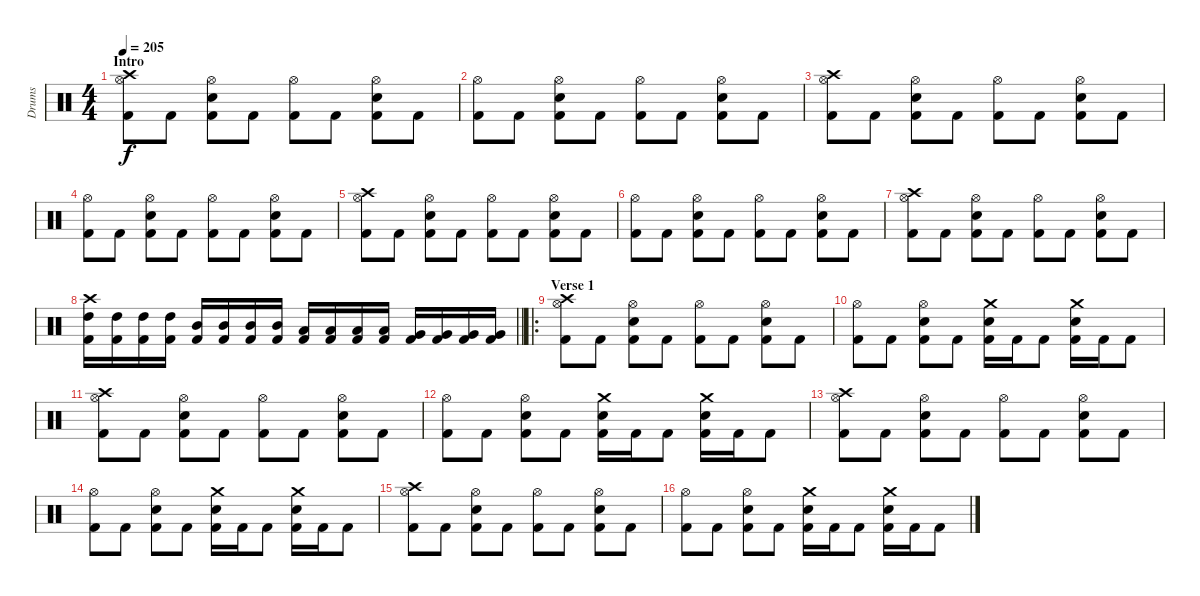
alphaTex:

\track ("Drums" "Drums") {instrument percussion}
\staff {score}
\articulation defaults
\ts (4 4)
\section ("" "Intro")
\tempo 205
\clef neutral
\ks c
("Crash high (hit)" "Hi-Hat (open)" "Kick (hit) 2").8{dy f} "Kick (hit) 2".8 ("Hi-Hat (open)" "Snare (hit) 2" "Kick (hit) 2").8 "Kick (hit) 2".8 ("Hi-Hat (open)" "Kick (hit) 2").8 "Kick (hit) 2".8 ("Hi-Hat (open)" "Snare (hit) 2" "Kick (hit) 2").8 "Kick (hit) 2".8 |
("Hi-Hat (open)" "Kick (hit) 2").8 "Kick (hit) 2".8 ("Hi-Hat (open)" "Snare (hit) 2" "Kick (hit) 2").8 "Kick (hit) 2".8 ("Hi-Hat (open)" "Kick (hit) 2").8 "Kick (hit) 2".8 ("Hi-Hat (open)" "Snare (hit) 2" "Kick (hit) 2").8 "Kick (hit) 2".8 |
("Crash high (hit)" "Hi-Hat (open)" "Kick (hit) 2").8 "Kick (hit) 2".8 ("Hi-Hat (open)" "Snare (hit) 2" "Kick (hit) 2").8 "Kick (hit) 2".8 ("Hi-Hat (open)" "Kick (hit) 2").8 "Kick (hit) 2".8 ("Hi-Hat (open)" "Snare (hit) 2" "Kick (hit) 2").8 "Kick (hit) 2".8 |
("Hi-Hat (open)" "Kick (hit) 2").8 "Kick (hit) 2".8 ("Hi-Hat (open)" "Snare (hit) 2" "Kick (hit) 2").8 "Kick (hit) 2".8 ("Hi-Hat (open)" "Kick (hit) 2").8 "Kick (hit) 2".8 ("Hi-Hat (open)" "Snare (hit) 2" "Kick (hit) 2").8 "Kick (hit) 2".8 |
("Crash high (hit)" "Hi-Hat (open)" "Kick (hit) 2").8 "Kick (hit) 2".8 ("Hi-Hat (open)" "Snare (hit) 2" "Kick (hit) 2").8 "Kick (hit) 2".8 ("Hi-Hat (open)" "Kick (hit) 2").8 "Kick (hit) 2".8 ("Hi-Hat (open)" "Snare (hit) 2" "Kick (hit) 2").8 "Kick (hit) 2".8 |
("Hi-Hat (open)" "Kick (hit) 2").8 "Kick (hit) 2".8 ("Hi-Hat (open)" "Snare (hit) 2" "Kick (hit) 2").8 "Kick (hit) 2".8 ("Hi-Hat (open)" "Kick (hit) 2").8 "Kick (hit) 2".8 ("Hi-Hat (open)" "Snare (hit) 2" "Kick (hit) 2").8 "Kick (hit) 2".8 |
("Crash high (hit)" "Hi-Hat (open)" "Kick (hit) 2").8 "Kick (hit) 2".8 ("Hi-Hat (open)" "Snare (hit) 2" "Kick (hit) 2").8 "Kick (hit) 2".8 ("Hi-Hat (open)" "Kick (hit) 2").8 "Kick (hit) 2".8 ("Hi-Hat (open)" "Snare (hit) 2" "Kick (hit) 2").8 "Kick (hit) 2".8 |
\barLineRight lightlight
("Crash high (hit)" "High Tom (hit)" "Kick (hit) 2").16 ("High Tom (hit)" "Kick (hit) 2").16 ("High Tom (hit)" "Kick (hit) 2").16 ("High Tom (hit)" "Kick (hit) 2").16 ("Mid Tom (hit)" "Kick (hit) 2").16 ("Mid Tom (hit)" "Kick (hit) 2").16 ("Mid Tom (hit)" "Kick (hit) 2").16 ("Mid Tom (hit)" "Kick (hit) 2").16 ("Low Tom (hit)" "Kick (hit) 2").16 ("Low Tom (hit)" "Kick (hit) 2").16 ("Low Tom (hit)" "Kick (hit) 2").16 ("Low Tom (hit)" "Kick (hit) 2").16 ("Very Low Tom (hit)" "Kick (hit) 2").16 ("Very Low Tom (hit)" "Kick (hit) 2").16 ("Very Low Tom (hit)" "Kick (hit) 2").16 ("Very Low Tom (hit)" "Kick (hit) 2").16 |
\ro
\section ("" "Verse 1")
("Crash high (hit)" "Hi-Hat (open)" "Kick (hit) 2").8 "Kick (hit) 2".8 ("Hi-Hat (open)" "Snare (hit) 2" "Kick (hit) 2").8 "Kick (hit) 2".8 ("Hi-Hat (open)" "Kick (hit) 2").8 "Kick (hit) 2".8 ("Hi-Hat (open)" "Snare (hit) 2" "Kick (hit) 2").8 "Kick (hit) 2".8 |
("Hi-Hat (open)" "Kick (hit) 2").8 "Kick (hit) 2".8 ("Hi-Hat (open)" "Snare (hit) 2" "Kick (hit) 2").8 "Kick (hit) 2".8 ("Crash medium (hit)" "Snare (hit) 2" "Kick (hit) 2").16 "Kick (hit) 2".16 "Kick (hit) 2".8 ("Crash medium (hit)" "Snare (hit) 2" "Kick (hit) 2").16 "Kick (hit) 2".16 "Kick (hit) 2".8 |
("Crash high (hit)" "Hi-Hat (open)" "Kick (hit) 2").8 "Kick (hit) 2".8 ("Hi-Hat (open)" "Snare (hit) 2" "Kick (hit) 2").8 "Kick (hit) 2".8 ("Hi-Hat (open)" "Kick (hit) 2").8 "Kick (hit) 2".8 ("Hi-Hat (open)" "Snare (hit) 2" "Kick (hit) 2").8 "Kick (hit) 2".8 |
("Hi-Hat (open)" "Kick (hit) 2").8 "Kick (hit) 2".8 ("Hi-Hat (open)" "Snare (hit) 2" "Kick (hit) 2").8 "Kick (hit) 2".8 ("Crash medium (hit)" "Snare (hit) 2" "Kick (hit) 2").16 "Kick (hit) 2".16 "Kick (hit) 2".8 ("Crash medium (hit)" "Snare (hit) 2" "Kick (hit) 2").16 "Kick (hit) 2".16 "Kick (hit) 2".8 |
("Crash high (hit)" "Hi-Hat (open)" "Kick (hit) 2").8 "Kick (hit) 2".8 ("Hi-Hat (open)" "Snare (hit) 2" "Kick (hit) 2").8 "Kick (hit) 2".8 ("Hi-Hat (open)" "Kick (hit) 2").8 "Kick (hit) 2".8 ("Hi-Hat (open)" "Snare (hit) 2" "Kick (hit) 2").8 "Kick (hit) 2".8 |
("Hi-Hat (open)" "Kick (hit) 2").8 "Kick (hit) 2".8 ("Hi-Hat (open)" "Snare (hit) 2" "Kick (hit) 2").8 "Kick (hit) 2".8 ("Crash medium (hit)" "Snare (hit) 2" "Kick (hit) 2").16 "Kick (hit) 2".16 "Kick (hit) 2".8 ("Crash medium (hit)" "Snare (hit) 2" "Kick (hit) 2").16 "Kick (hit) 2".16 "Kick (hit) 2".8 |
("Crash high (hit)" "Hi-Hat (open)" "Kick (hit) 2").8 "Kick (hit) 2".8 ("Hi-Hat (open)" "Snare (hit) 2" "Kick (hit) 2").8 "Kick (hit) 2".8 ("Hi-Hat (open)" "Kick (hit) 2").8 "Kick (hit) 2".8 ("Hi-Hat (open)" "Snare (hit) 2" "Kick (hit) 2").8 "Kick (hit) 2".8 |
("Hi-Hat (open)" "Kick (hit) 2").8 "Kick (hit) 2".8 ("Hi-Hat (open)" "Snare (hit) 2" "Kick (hit) 2").8 "Kick (hit) 2".8 ("Crash medium (hit)" "Snare (hit) 2" "Kick (hit) 2").16 "Kick (hit) 2".16 "Kick (hit) 2".8 ("Crash medium (hit)" "Snare (hit) 2" "Kick (hit) 2").16 "Kick (hit) 2".16 "Kick (hit) 2".8
